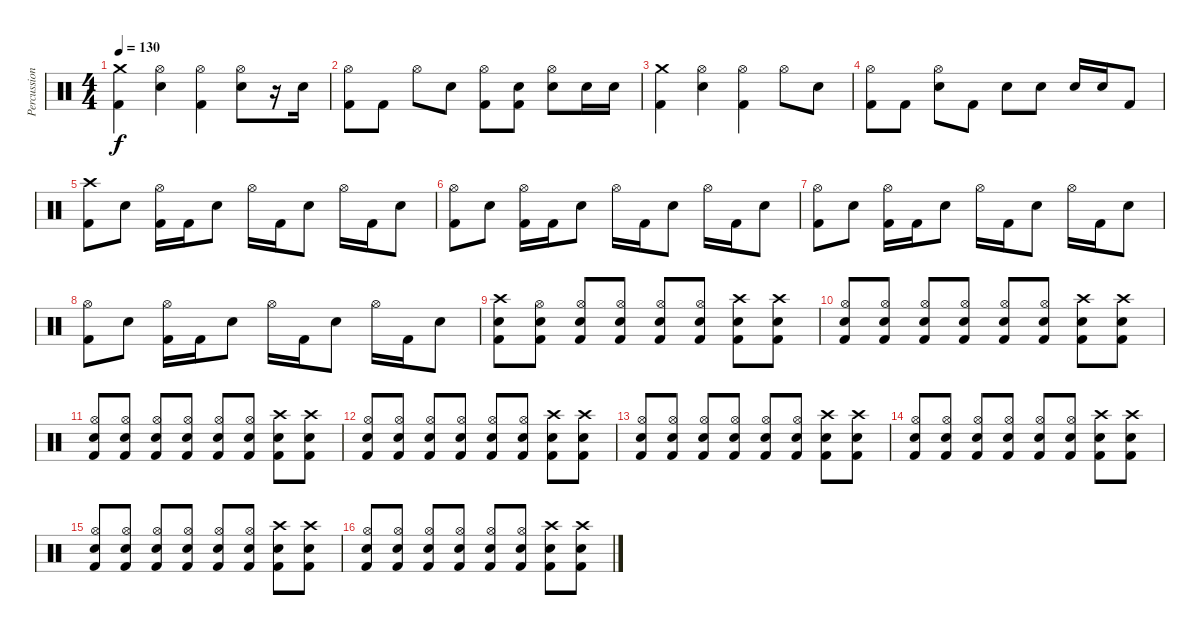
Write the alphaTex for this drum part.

\track ("Percussion" "Percussion") {instrument percussion}
\staff {score}
\articulation defaults
\ts (4 4)
\tempo 130
\clef neutral
\ks c
("Crash medium (hit)" "Kick (hit) 2").4{dy f} ("Hi-Hat (open)" "Electric Snare (hit)").4 ("Hi-Hat (open)" "Kick (hit) 2").4 ("Hi-Hat (open)" "Electric Snare (hit)").8 r.16 "Electric Snare (hit)".16 |
("Hi-Hat (open)" "Kick (hit) 2").8 "Kick (hit) 2".8 "Hi-Hat (open)".8 "Electric Snare (hit)".8 ("Hi-Hat (open)" "Kick (hit) 2").8 ("Electric Snare (hit)" "Kick (hit) 2").8 ("Hi-Hat (open)" "Electric Snare (hit)").8 "Electric Snare (hit)".16 "Electric Snare (hit)".16 |
("Crash medium (hit)" "Kick (hit) 2").4 ("Hi-Hat (open)" "Electric Snare (hit)").4 ("Hi-Hat (open)" "Kick (hit) 2").4 "Hi-Hat (open)".8 "Electric Snare (hit)".8 |
("Hi-Hat (open)" "Kick (hit) 2").8 "Kick (hit) 2".8 ("Hi-Hat (open)" "Electric Snare (hit)").8 "Kick (hit) 2".8 "Electric Snare (hit)".8 "Electric Snare (hit)".8 "Electric Snare (hit)".16 "Electric Snare (hit)".16 "Kick (hit) 2".8 |
("Crash high (hit)" "Kick (hit) 2").8 "Electric Snare (hit)".8 ("Hi-Hat (open)" "Kick (hit) 2").16 "Kick (hit) 2".16 "Electric Snare (hit)".8 "Hi-Hat (open)".16 "Kick (hit) 2".16 "Electric Snare (hit)".8 "Hi-Hat (open)".16 "Kick (hit) 2".16 "Electric Snare (hit)".8 |
("Hi-Hat (open)" "Kick (hit) 2").8 "Electric Snare (hit)".8 ("Hi-Hat (open)" "Kick (hit) 2").16 "Kick (hit) 2".16 "Electric Snare (hit)".8 "Hi-Hat (open)".16 "Kick (hit) 2".16 "Electric Snare (hit)".8 "Hi-Hat (open)".16 "Kick (hit) 2".16 "Electric Snare (hit)".8 |
("Hi-Hat (open)" "Kick (hit) 2").8 "Electric Snare (hit)".8 ("Hi-Hat (open)" "Kick (hit) 2").16 "Kick (hit) 2".16 "Electric Snare (hit)".8 "Hi-Hat (open)".16 "Kick (hit) 2".16 "Electric Snare (hit)".8 "Hi-Hat (open)".16 "Kick (hit) 2".16 "Electric Snare (hit)".8 |
("Hi-Hat (open)" "Kick (hit) 2").8 "Electric Snare (hit)".8 ("Hi-Hat (open)" "Kick (hit) 2").16 "Kick (hit) 2".16 "Electric Snare (hit)".8 "Hi-Hat (open)".16 "Kick (hit) 2".16 "Electric Snare (hit)".8 "Hi-Hat (open)".16 "Kick (hit) 2".16 "Electric Snare (hit)".8 |
("Crash high (hit)" "Electric Snare (hit)" "Kick (hit) 2").8 ("Hi-Hat (open)" "Electric Snare (hit)" "Kick (hit) 2").8 ("Hi-Hat (open)" "Electric Snare (hit)" "Kick (hit) 2").8 ("Hi-Hat (open)" "Electric Snare (hit)" "Kick (hit) 2").8 ("Hi-Hat (open)" "Electric Snare (hit)" "Kick (hit) 2").8 ("Hi-Hat (open)" "Electric Snare (hit)" "Kick (hit) 2").8 ("Crash high (hit)" "Electric Snare (hit)" "Kick (hit) 2").8 ("Crash high (hit)" "Electric Snare (hit)" "Kick (hit) 2").8 |
("Hi-Hat (open)" "Electric Snare (hit)" "Kick (hit) 2").8 ("Hi-Hat (open)" "Electric Snare (hit)" "Kick (hit) 2").8 ("Hi-Hat (open)" "Electric Snare (hit)" "Kick (hit) 2").8 ("Hi-Hat (open)" "Electric Snare (hit)" "Kick (hit) 2").8 ("Hi-Hat (open)" "Electric Snare (hit)" "Kick (hit) 2").8 ("Hi-Hat (open)" "Electric Snare (hit)" "Kick (hit) 2").8 ("Crash high (hit)" "Electric Snare (hit)" "Kick (hit) 2").8 ("Crash high (hit)" "Electric Snare (hit)" "Kick (hit) 2").8 |
("Hi-Hat (open)" "Electric Snare (hit)" "Kick (hit) 2").8 ("Hi-Hat (open)" "Electric Snare (hit)" "Kick (hit) 2").8 ("Hi-Hat (open)" "Electric Snare (hit)" "Kick (hit) 2").8 ("Hi-Hat (open)" "Electric Snare (hit)" "Kick (hit) 2").8 ("Hi-Hat (open)" "Electric Snare (hit)" "Kick (hit) 2").8 ("Hi-Hat (open)" "Electric Snare (hit)" "Kick (hit) 2").8 ("Crash high (hit)" "Electric Snare (hit)" "Kick (hit) 2").8 ("Crash high (hit)" "Electric Snare (hit)" "Kick (hit) 2").8 |
("Hi-Hat (open)" "Electric Snare (hit)" "Kick (hit) 2").8 ("Hi-Hat (open)" "Electric Snare (hit)" "Kick (hit) 2").8 ("Hi-Hat (open)" "Electric Snare (hit)" "Kick (hit) 2").8 ("Hi-Hat (open)" "Electric Snare (hit)" "Kick (hit) 2").8 ("Hi-Hat (open)" "Electric Snare (hit)" "Kick (hit) 2").8 ("Hi-Hat (open)" "Electric Snare (hit)" "Kick (hit) 2").8 ("Crash high (hit)" "Electric Snare (hit)" "Kick (hit) 2").8 ("Crash high (hit)" "Electric Snare (hit)" "Kick (hit) 2").8 |
("Hi-Hat (open)" "Electric Snare (hit)" "Kick (hit) 2").8 ("Hi-Hat (open)" "Electric Snare (hit)" "Kick (hit) 2").8 ("Hi-Hat (open)" "Electric Snare (hit)" "Kick (hit) 2").8 ("Hi-Hat (open)" "Electric Snare (hit)" "Kick (hit) 2").8 ("Hi-Hat (open)" "Electric Snare (hit)" "Kick (hit) 2").8 ("Hi-Hat (open)" "Electric Snare (hit)" "Kick (hit) 2").8 ("Crash high (hit)" "Electric Snare (hit)" "Kick (hit) 2").8 ("Crash high (hit)" "Electric Snare (hit)" "Kick (hit) 2").8 |
("Hi-Hat (open)" "Electric Snare (hit)" "Kick (hit) 2").8 ("Hi-Hat (open)" "Electric Snare (hit)" "Kick (hit) 2").8 ("Hi-Hat (open)" "Electric Snare (hit)" "Kick (hit) 2").8 ("Hi-Hat (open)" "Electric Snare (hit)" "Kick (hit) 2").8 ("Hi-Hat (open)" "Electric Snare (hit)" "Kick (hit) 2").8 ("Hi-Hat (open)" "Electric Snare (hit)" "Kick (hit) 2").8 ("Crash high (hit)" "Electric Snare (hit)" "Kick (hit) 2").8 ("Crash high (hit)" "Electric Snare (hit)" "Kick (hit) 2").8 |
("Hi-Hat (open)" "Electric Snare (hit)" "Kick (hit) 2").8 ("Hi-Hat (open)" "Electric Snare (hit)" "Kick (hit) 2").8 ("Hi-Hat (open)" "Electric Snare (hit)" "Kick (hit) 2").8 ("Hi-Hat (open)" "Electric Snare (hit)" "Kick (hit) 2").8 ("Hi-Hat (open)" "Electric Snare (hit)" "Kick (hit) 2").8 ("Hi-Hat (open)" "Electric Snare (hit)" "Kick (hit) 2").8 ("Crash high (hit)" "Electric Snare (hit)" "Kick (hit) 2").8 ("Crash high (hit)" "Electric Snare (hit)" "Kick (hit) 2").8 |
("Hi-Hat (open)" "Electric Snare (hit)" "Kick (hit) 2").8 ("Hi-Hat (open)" "Electric Snare (hit)" "Kick (hit) 2").8 ("Hi-Hat (open)" "Electric Snare (hit)" "Kick (hit) 2").8 ("Hi-Hat (open)" "Electric Snare (hit)" "Kick (hit) 2").8 ("Hi-Hat (open)" "Electric Snare (hit)" "Kick (hit) 2").8 ("Hi-Hat (open)" "Electric Snare (hit)" "Kick (hit) 2").8 ("Crash high (hit)" "Electric Snare (hit)" "Kick (hit) 2").8 ("Crash high (hit)" "Electric Snare (hit)" "Kick (hit) 2").8
